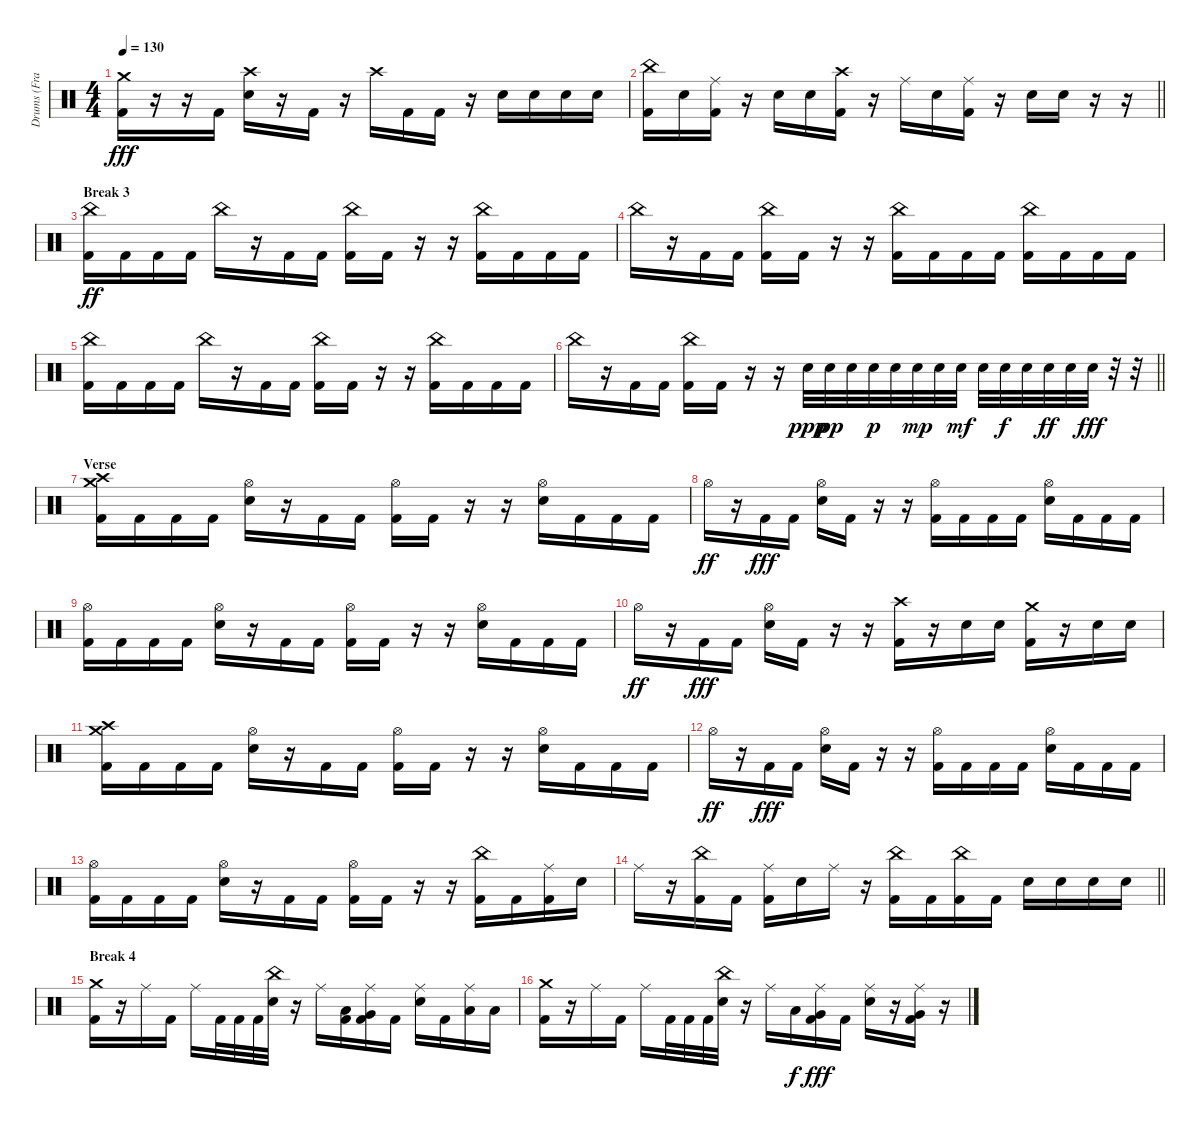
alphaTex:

\track ("Drums (Franky)" "Drums (Fra") {instrument percussion}
\staff {score}
\articulation defaults
\ts (4 4)
\tempo 130
\clef neutral
\ks c
("Crash medium (hit)" "Kick (hit) 2").16{dy fff} r.16 r.16 "Kick (hit) 2".16 ("Crash high (hit)" "Electric Snare (hit)").16 r.16 "Kick (hit) 2".16 r.16 "Crash high (hit)".16 "Kick (hit) 2".16 "Kick (hit) 2".16 r.16 "Electric Snare (hit)".16 "Electric Snare (hit)".16 "Electric Snare (hit)".16 "Electric Snare (hit)".16 |
\barLineRight lightlight
("China (hit)" "Kick (hit) 2").16 "Electric Snare (hit)".16 ("Ride (middle)" "Kick (hit) 2").16 r.16 "Electric Snare (hit)".16 "Electric Snare (hit)".16 ("Crash high (hit)" "Kick (hit) 2").16 r.16 "Ride (middle)".16 "Electric Snare (hit)".16 ("Ride (middle)" "Kick (hit) 2").16 r.16 "Electric Snare (hit)".16 "Electric Snare (hit)".16 r.16 r.16 |
\section ("" "Break 3")
("China (hit)" "Kick (hit) 2").16{dy ff} "Kick (hit) 2".16 "Kick (hit) 2".16 "Kick (hit) 2".16 "China (hit)".16 r.16 "Kick (hit) 2".16 "Kick (hit) 2".16 ("China (hit)" "Kick (hit) 2").16 "Kick (hit) 2".16 r.16 r.16 ("China (hit)" "Kick (hit) 2").16 "Kick (hit) 2".16 "Kick (hit) 2".16 "Kick (hit) 2".16 |
"China (hit)".16 r.16 "Kick (hit) 2".16 "Kick (hit) 2".16 ("China (hit)" "Kick (hit) 2").16 "Kick (hit) 2".16 r.16 r.16 ("China (hit)" "Kick (hit) 2").16 "Kick (hit) 2".16 "Kick (hit) 2".16 "Kick (hit) 2".16 ("China (hit)" "Kick (hit) 2").16 "Kick (hit) 2".16 "Kick (hit) 2".16 "Kick (hit) 2".16 |
("China (hit)" "Kick (hit) 2").16 "Kick (hit) 2".16 "Kick (hit) 2".16 "Kick (hit) 2".16 "China (hit)".16 r.16 "Kick (hit) 2".16 "Kick (hit) 2".16 ("China (hit)" "Kick (hit) 2").16 "Kick (hit) 2".16 r.16 r.16 ("China (hit)" "Kick (hit) 2").16 "Kick (hit) 2".16 "Kick (hit) 2".16 "Kick (hit) 2".16 |
\barLineRight lightlight "China (hit)".16
r.16 "Kick (hit) 2".16 "Kick (hit) 2".16 ("China (hit)" "Kick (hit) 2").16 "Kick (hit) 2".16 r.16 r.16 "Electric Snare (hit)".32{dy ppp} "Electric Snare (hit)".32{dy pp} "Electric Snare (hit)".32 "Electric Snare (hit)".32{dy p} "Electric Snare (hit)".32 "Electric Snare (hit)".32{dy mp} "Electric Snare (hit)".32 "Electric Snare (hit)".32{dy mf} "Electric Snare (hit)".32 "Electric Snare (hit)".32{dy f} "Electric Snare (hit)".32 "Electric Snare (hit)".32{dy ff} "Electric Snare (hit)".32 "Electric Snare (hit)".32{dy fff} r.32 r.32 |
\section ("" "Verse")
("Crash medium (hit)" "Crash high (hit)" "Kick (hit) 2").16 "Kick (hit) 2".16 "Kick (hit) 2".16 "Kick (hit) 2".16 ("Hi-Hat (open)" "Electric Snare (hit)").16 r.16 "Kick (hit) 2".16 "Kick (hit) 2".16 ("Hi-Hat (open)" "Kick (hit) 2").16 "Kick (hit) 2".16 r.16 r.16 ("Hi-Hat (open)" "Electric Snare (hit)").16 "Kick (hit) 2".16 "Kick (hit) 2".16 "Kick (hit) 2".16 |
"Hi-Hat (open)".16{dy ff} r.16 "Kick (hit) 2".16{dy fff} "Kick (hit) 2".16 ("Hi-Hat (open)" "Electric Snare (hit)").16 "Kick (hit) 2".16 r.16 r.16 ("Hi-Hat (open)" "Kick (hit) 2").16 "Kick (hit) 2".16 "Kick (hit) 2".16 "Kick (hit) 2".16 ("Hi-Hat (open)" "Electric Snare (hit)").16 "Kick (hit) 2".16 "Kick (hit) 2".16 "Kick (hit) 2".16 |
("Hi-Hat (open)" "Kick (hit) 2").16 "Kick (hit) 2".16 "Kick (hit) 2".16 "Kick (hit) 2".16 ("Hi-Hat (open)" "Electric Snare (hit)").16 r.16 "Kick (hit) 2".16 "Kick (hit) 2".16 ("Hi-Hat (open)" "Kick (hit) 2").16 "Kick (hit) 2".16 r.16 r.16 ("Hi-Hat (open)" "Electric Snare (hit)").16 "Kick (hit) 2".16 "Kick (hit) 2".16 "Kick (hit) 2".16 |
"Hi-Hat (open)".16{dy ff} r.16 "Kick (hit) 2".16{dy fff} "Kick (hit) 2".16 ("Hi-Hat (open)" "Electric Snare (hit)").16 "Kick (hit) 2".16 r.16 r.16 ("Crash high (hit)" "Kick (hit) 2").16 r.16 "Electric Snare (hit)".16 "Electric Snare (hit)".16 ("Crash medium (hit)" "Kick (hit) 2").16 r.16 "Electric Snare (hit)".16 "Electric Snare (hit)".16 |
("Crash medium (hit)" "Crash high (hit)" "Kick (hit) 2").16 "Kick (hit) 2".16 "Kick (hit) 2".16 "Kick (hit) 2".16 ("Hi-Hat (open)" "Electric Snare (hit)").16 r.16 "Kick (hit) 2".16 "Kick (hit) 2".16 ("Hi-Hat (open)" "Kick (hit) 2").16 "Kick (hit) 2".16 r.16 r.16 ("Hi-Hat (open)" "Electric Snare (hit)").16 "Kick (hit) 2".16 "Kick (hit) 2".16 "Kick (hit) 2".16 |
"Hi-Hat (open)".16{dy ff} r.16 "Kick (hit) 2".16{dy fff} "Kick (hit) 2".16 ("Hi-Hat (open)" "Electric Snare (hit)").16 "Kick (hit) 2".16 r.16 r.16 ("Hi-Hat (open)" "Kick (hit) 2").16 "Kick (hit) 2".16 "Kick (hit) 2".16 "Kick (hit) 2".16 ("Hi-Hat (open)" "Electric Snare (hit)").16 "Kick (hit) 2".16 "Kick (hit) 2".16 "Kick (hit) 2".16 |
("Hi-Hat (open)" "Kick (hit) 2").16 "Kick (hit) 2".16 "Kick (hit) 2".16 "Kick (hit) 2".16 ("Hi-Hat (open)" "Electric Snare (hit)").16 r.16 "Kick (hit) 2".16 "Kick (hit) 2".16 ("Hi-Hat (open)" "Kick (hit) 2").16 "Kick (hit) 2".16 r.16 r.16 ("China (hit)" "Kick (hit) 2").16 "Kick (hit) 2".16 ("Ride (middle)" "Kick (hit) 2").16 "Electric Snare (hit)".16 |
\barLineRight lightlight "Ride (middle)".16
r.16 ("China (hit)" "Kick (hit) 2").16 "Kick (hit) 2".16 ("Ride (middle)" "Kick (hit) 2").16 "Electric Snare (hit)".16 "Ride (middle)".16 r.16 ("China (hit)" "Kick (hit) 2").16 "Kick (hit) 2".16 ("China (hit)" "Kick (hit) 2").16 "Kick (hit) 2".16 "Electric Snare (hit)".16 "Electric Snare (hit)".16 "Electric Snare (hit)".16 "Electric Snare (hit)".16 |
\section ("" "Break 4")
("Crash medium (hit)" "Kick (hit) 2").16 r.16 "Ride (middle)".16 "Kick (hit) 2".16 "Ride (middle)".16 "Kick (hit) 2".32 "Kick (hit) 2".32 "Kick (hit) 2".32 ("China (hit)" "Electric Snare (hit)").32 r.16 "Ride (middle)".16 ("Low Tom (hit)" "Kick (hit) 2").16 ("Ride (middle)" "Very Low Tom (hit)" "Kick (hit) 2").16 "Kick (hit) 2".16 ("Ride (middle)" "Electric Snare (hit)").16 "Kick (hit) 2".16 ("Ride (middle)" "Low Tom (hit)").16 "Low Tom (hit)".16 |
("Crash medium (hit)" "Kick (hit) 2").16 r.16 "Ride (middle)".16 "Kick (hit) 2".16 "Ride (middle)".16 "Kick (hit) 2".32 "Kick (hit) 2".32 "Kick (hit) 2".32 ("China (hit)" "Electric Snare (hit)").32 r.16 "Ride (middle)".16 "Low Tom (hit)".16{dy f} ("Ride (middle)" "Very Low Tom (hit)" "Kick (hit) 2").16{dy fff} "Kick (hit) 2".16 ("Ride (middle)" "Electric Snare (hit)").16 r.16 ("Ride (middle)" "Very Low Tom (hit)" "Kick (hit) 2").16 r.16
